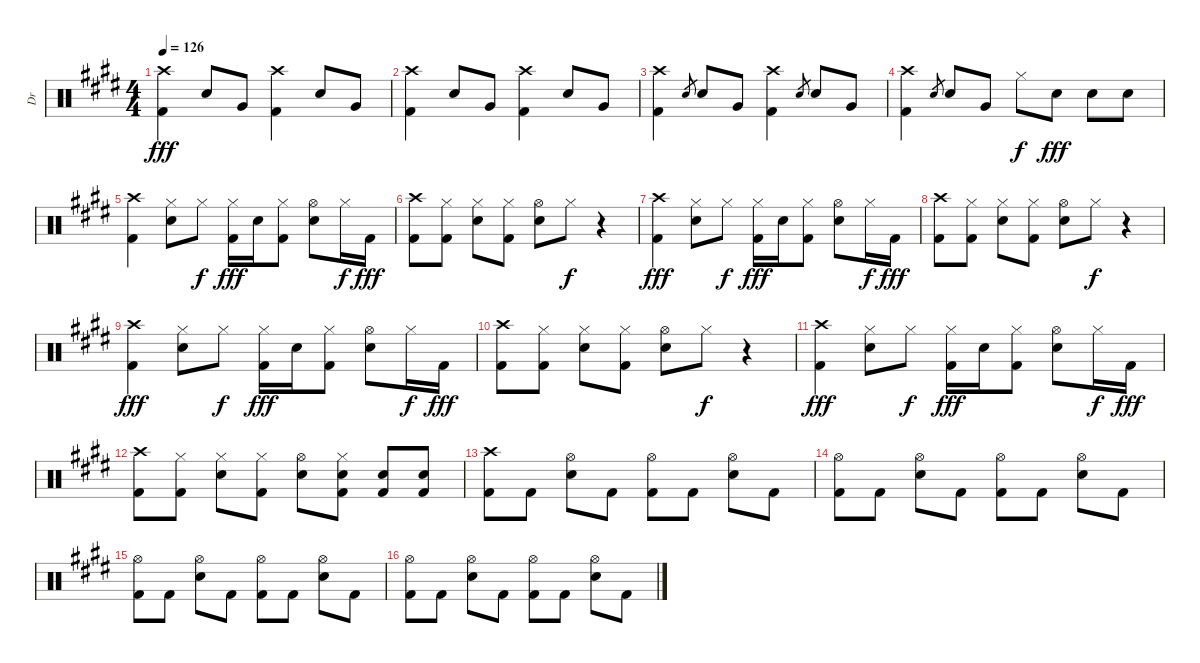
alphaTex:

\track ("Dr" "Dr") {instrument percussion}
\staff {score}
\articulation defaults
\ts (4 4)
\tempo 126
\clef neutral
\ks e
("Crash high (hit)" "Kick (hit) 2").4{dy fff} "Electric Snare (hit)".8 "Very Low Tom (hit)".8 ("Crash high (hit)" "Kick (hit) 2").4 "Electric Snare (hit)".8 "Very Low Tom (hit)".8 |
("Crash high (hit)" "Kick (hit) 2").4 "Electric Snare (hit)".8 "Very Low Tom (hit)".8 ("Crash high (hit)" "Kick (hit) 2").4 "Electric Snare (hit)".8 "Very Low Tom (hit)".8 |
("Crash high (hit)" "Kick (hit) 2").4 "Electric Snare (hit)".8{gr} "Electric Snare (hit)".8 "Very Low Tom (hit)".8 ("Crash high (hit)" "Kick (hit) 2").4 "Electric Snare (hit)".8{gr} "Electric Snare (hit)".8 "Very Low Tom (hit)".8 |
("Crash high (hit)" "Kick (hit) 2").4 "Electric Snare (hit)".8{gr} "Electric Snare (hit)".8 "Very Low Tom (hit)".8 "Hi-Hat (closed)".8{dy f} "Electric Snare (hit)".8{dy fff} "Electric Snare (hit)".8 "Electric Snare (hit)".8 |
("Crash high (hit)" "Kick (hit) 2").4 ("Hi-Hat (closed)" "Electric Snare (hit)").8 "Hi-Hat (closed)".8{dy f} ("Hi-Hat (closed)" "Kick (hit) 2").16{dy fff} "Electric Snare (hit)".16 ("Hi-Hat (closed)" "Kick (hit) 2").8 ("Hi-Hat (open)" "Electric Snare (hit)").8 "Hi-Hat (closed)".16{dy f} "Kick (hit) 2".16{dy fff} |
("Crash high (hit)" "Kick (hit) 2").8 ("Hi-Hat (closed)" "Kick (hit) 2").8 ("Hi-Hat (closed)" "Electric Snare (hit)").8 ("Hi-Hat (closed)" "Kick (hit) 2").8 ("Hi-Hat (open)" "Electric Snare (hit)").8 "Hi-Hat (closed)".8{dy f} r.4 |
("Crash high (hit)" "Kick (hit) 2").4{dy fff} ("Hi-Hat (closed)" "Electric Snare (hit)").8 "Hi-Hat (closed)".8{dy f} ("Hi-Hat (closed)" "Kick (hit) 2").16{dy fff} "Electric Snare (hit)".16 ("Hi-Hat (closed)" "Kick (hit) 2").8 ("Hi-Hat (open)" "Electric Snare (hit)").8 "Hi-Hat (closed)".16{dy f} "Kick (hit) 2".16{dy fff} |
("Crash high (hit)" "Kick (hit) 2").8 ("Hi-Hat (closed)" "Kick (hit) 2").8 ("Hi-Hat (closed)" "Electric Snare (hit)").8 ("Hi-Hat (closed)" "Kick (hit) 2").8 ("Hi-Hat (open)" "Electric Snare (hit)").8 "Hi-Hat (closed)".8{dy f} r.4 |
("Crash high (hit)" "Kick (hit) 2").4{dy fff} ("Hi-Hat (closed)" "Electric Snare (hit)").8 "Hi-Hat (closed)".8{dy f} ("Hi-Hat (closed)" "Kick (hit) 2").16{dy fff} "Electric Snare (hit)".16 ("Hi-Hat (closed)" "Kick (hit) 2").8 ("Hi-Hat (open)" "Electric Snare (hit)").8 "Hi-Hat (closed)".16{dy f} "Kick (hit) 2".16{dy fff} |
("Crash high (hit)" "Kick (hit) 2").8 ("Hi-Hat (closed)" "Kick (hit) 2").8 ("Hi-Hat (closed)" "Electric Snare (hit)").8 ("Hi-Hat (closed)" "Kick (hit) 2").8 ("Hi-Hat (open)" "Electric Snare (hit)").8 "Hi-Hat (closed)".8{dy f} r.4 |
("Crash high (hit)" "Kick (hit) 2").4{dy fff} ("Hi-Hat (closed)" "Electric Snare (hit)").8 "Hi-Hat (closed)".8{dy f} ("Hi-Hat (closed)" "Kick (hit) 2").16{dy fff} "Electric Snare (hit)".16 ("Hi-Hat (closed)" "Kick (hit) 2").8 ("Hi-Hat (open)" "Electric Snare (hit)").8 "Hi-Hat (closed)".16{dy f} "Kick (hit) 2".16{dy fff} |
("Crash high (hit)" "Kick (hit) 2").8 ("Hi-Hat (closed)" "Kick (hit) 2").8 ("Hi-Hat (closed)" "Electric Snare (hit)").8 ("Hi-Hat (closed)" "Kick (hit) 2").8 ("Hi-Hat (open)" "Electric Snare (hit)").8 ("Hi-Hat (closed)" "Electric Snare (hit)" "Kick (hit) 2").8 ("Electric Snare (hit)" "Kick (hit) 2").8 ("Electric Snare (hit)" "Kick (hit) 2").8 |
("Crash high (hit)" "Kick (hit) 2").8 "Kick (hit) 2".8 ("Hi-Hat (open)" "Electric Snare (hit)").8 "Kick (hit) 2".8 ("Hi-Hat (open)" "Kick (hit) 2").8 "Kick (hit) 2".8 ("Hi-Hat (open)" "Electric Snare (hit)").8 "Kick (hit) 2".8 |
("Hi-Hat (open)" "Kick (hit) 2").8 "Kick (hit) 2".8 ("Hi-Hat (open)" "Electric Snare (hit)").8 "Kick (hit) 2".8 ("Hi-Hat (open)" "Kick (hit) 2").8 "Kick (hit) 2".8 ("Hi-Hat (open)" "Electric Snare (hit)").8 "Kick (hit) 2".8 |
("Hi-Hat (open)" "Kick (hit) 2").8 "Kick (hit) 2".8 ("Hi-Hat (open)" "Electric Snare (hit)").8 "Kick (hit) 2".8 ("Hi-Hat (open)" "Kick (hit) 2").8 "Kick (hit) 2".8 ("Hi-Hat (open)" "Electric Snare (hit)").8 "Kick (hit) 2".8 |
("Hi-Hat (open)" "Kick (hit) 2").8 "Kick (hit) 2".8 ("Hi-Hat (open)" "Electric Snare (hit)").8 "Kick (hit) 2".8 ("Hi-Hat (open)" "Kick (hit) 2").8 "Kick (hit) 2".8 ("Hi-Hat (open)" "Electric Snare (hit)").8 "Kick (hit) 2".8
